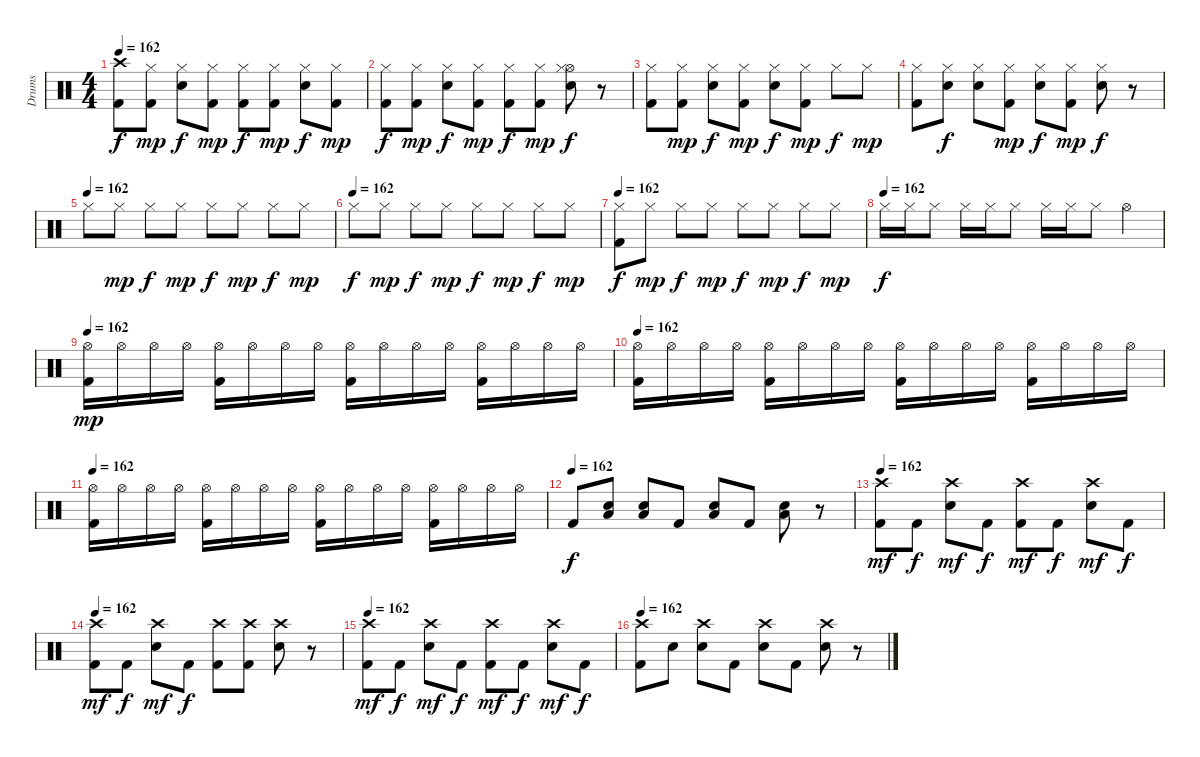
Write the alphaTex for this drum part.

\track ("Drums" "Drums") {instrument percussion}
\staff {score}
\articulation defaults
\ts (4 4)
\tempo 162
\clef neutral
\ks c
("Crash high (hit)" "Kick (hit) 2").8{dy f} ("Hi-Hat (closed)" "Kick (hit) 2").8{dy mp} ("Hi-Hat (closed)" "Electric Snare (hit)").8{dy f} ("Hi-Hat (closed)" "Kick (hit) 2").8{dy mp} ("Hi-Hat (closed)" "Kick (hit) 2").8{dy f} ("Hi-Hat (closed)" "Kick (hit) 2").8{dy mp} ("Hi-Hat (closed)" "Electric Snare (hit)").8{dy f} ("Hi-Hat (closed)" "Kick (hit) 2").8{dy mp} |
("Hi-Hat (closed)" "Kick (hit) 2").8{dy f} ("Hi-Hat (closed)" "Kick (hit) 2").8{dy mp} ("Hi-Hat (closed)" "Electric Snare (hit)").8{dy f} ("Hi-Hat (closed)" "Kick (hit) 2").8{dy mp} ("Hi-Hat (closed)" "Kick (hit) 2").8{dy f} ("Hi-Hat (closed)" "Kick (hit) 2").8{dy mp} ("Hi-Hat (open)" "Hi-Hat (closed)" "Electric Snare (hit)").8{dy f} r.8 |
("Hi-Hat (closed)" "Kick (hit) 2").8 ("Hi-Hat (closed)" "Kick (hit) 2").8{dy mp} ("Hi-Hat (closed)" "Electric Snare (hit)").8{dy f} ("Hi-Hat (closed)" "Kick (hit) 2").8{dy mp} ("Hi-Hat (closed)" "Electric Snare (hit)").8{dy f} ("Hi-Hat (closed)" "Kick (hit) 2").8{dy mp} "Hi-Hat (closed)".8{dy f} "Hi-Hat (closed)".8{dy mp} |
("Hi-Hat (closed)" "Kick (hit) 2").8 ("Hi-Hat (closed)" "Electric Snare (hit)").8{dy f} ("Hi-Hat (closed)" "Electric Snare (hit)").8 ("Hi-Hat (closed)" "Kick (hit) 2").8{dy mp} ("Hi-Hat (closed)" "Electric Snare (hit)").8{dy f} ("Hi-Hat (closed)" "Kick (hit) 2").8{dy mp} ("Hi-Hat (closed)" "Electric Snare (hit)").8{dy f} r.8 |
\tempo (162)
"Hi-Hat (closed)".8 "Hi-Hat (closed)".8{dy mp} "Hi-Hat (closed)".8{dy f} "Hi-Hat (closed)".8{dy mp} "Hi-Hat (closed)".8{dy f} "Hi-Hat (closed)".8{dy mp} "Hi-Hat (closed)".8{dy f} "Hi-Hat (closed)".8{dy mp} |
\tempo (162)
"Hi-Hat (closed)".8{dy f} "Hi-Hat (closed)".8{dy mp} "Hi-Hat (closed)".8{dy f} "Hi-Hat (closed)".8{dy mp} "Hi-Hat (closed)".8{dy f} "Hi-Hat (closed)".8{dy mp} "Hi-Hat (closed)".8{dy f} "Hi-Hat (closed)".8{dy mp} |
\tempo 162
("Hi-Hat (closed)" "Kick (hit) 2").8{dy f} "Hi-Hat (closed)".8{dy mp} "Hi-Hat (closed)".8{dy f} "Hi-Hat (closed)".8{dy mp} "Hi-Hat (closed)".8{dy f} "Hi-Hat (closed)".8{dy mp} "Hi-Hat (closed)".8{dy f} "Hi-Hat (closed)".8{dy mp} |
\tempo (162)
"Hi-Hat (closed)".16{dy f} "Hi-Hat (closed)".16 "Hi-Hat (closed)".8 "Hi-Hat (closed)".16 "Hi-Hat (closed)".16 "Hi-Hat (closed)".8 "Hi-Hat (closed)".16 "Hi-Hat (closed)".16 "Hi-Hat (closed)".8 "Hi-Hat (open)".4 |
\tempo 162
("Hi-Hat (open)" "Kick (hit) 2").16{dy mp} "Hi-Hat (open)".16 "Hi-Hat (open)".16 "Hi-Hat (open)".16 ("Hi-Hat (open)" "Kick (hit) 2").16 "Hi-Hat (open)".16 "Hi-Hat (open)".16 "Hi-Hat (open)".16 ("Hi-Hat (open)" "Kick (hit) 2").16 "Hi-Hat (open)".16 "Hi-Hat (open)".16 "Hi-Hat (open)".16 ("Hi-Hat (open)" "Kick (hit) 2").16 "Hi-Hat (open)".16 "Hi-Hat (open)".16 "Hi-Hat (open)".16 |
\tempo 162
("Hi-Hat (open)" "Kick (hit) 2").16 "Hi-Hat (open)".16 "Hi-Hat (open)".16 "Hi-Hat (open)".16 ("Hi-Hat (open)" "Kick (hit) 2").16 "Hi-Hat (open)".16 "Hi-Hat (open)".16 "Hi-Hat (open)".16 ("Hi-Hat (open)" "Kick (hit) 2").16 "Hi-Hat (open)".16 "Hi-Hat (open)".16 "Hi-Hat (open)".16 ("Hi-Hat (open)" "Kick (hit) 2").16 "Hi-Hat (open)".16 "Hi-Hat (open)".16 "Hi-Hat (open)".16 |
\tempo 162
("Hi-Hat (open)" "Kick (hit) 2").16 "Hi-Hat (open)".16 "Hi-Hat (open)".16 "Hi-Hat (open)".16 ("Hi-Hat (open)" "Kick (hit) 2").16 "Hi-Hat (open)".16 "Hi-Hat (open)".16 "Hi-Hat (open)".16 ("Hi-Hat (open)" "Kick (hit) 2").16 "Hi-Hat (open)".16 "Hi-Hat (open)".16 "Hi-Hat (open)".16 ("Hi-Hat (open)" "Kick (hit) 2").16 "Hi-Hat (open)".16 "Hi-Hat (open)".16 "Hi-Hat (open)".16 |
\tempo (162)
"Kick (hit) 2".8{dy f} ("Electric Snare (hit)" "Low Floor Tom (hit)").8 ("Electric Snare (hit)" "Low Floor Tom (hit)").8 "Kick (hit) 2".8 ("Electric Snare (hit)" "Low Floor Tom (hit)").8 "Kick (hit) 2".8 ("Electric Snare (hit)" "Low Floor Tom (hit)").8 r.8 |
\tempo 162
("Crash high (hit)" "Kick (hit) 2").8{dy mf} "Kick (hit) 2".8{dy f} ("Crash high (hit)" "Electric Snare (hit)").8{dy mf} "Kick (hit) 2".8{dy f} ("Crash high (hit)" "Kick (hit) 2").8{dy mf} "Kick (hit) 2".8{dy f} ("Crash high (hit)" "Electric Snare (hit)").8{dy mf} "Kick (hit) 2".8{dy f} |
\tempo 162
("Crash high (hit)" "Kick (hit) 2").8{dy mf} "Kick (hit) 2".8{dy f} ("Crash high (hit)" "Electric Snare (hit)").8{dy mf} "Kick (hit) 2".8{dy f} ("Crash high (hit)" "Kick (hit) 2").8 ("Crash high (hit)" "Kick (hit) 2").8 ("Crash high (hit)" "Electric Snare (hit)").8 r.8 |
\tempo 162
("Crash high (hit)" "Kick (hit) 2").8{dy mf} "Kick (hit) 2".8{dy f} ("Crash high (hit)" "Electric Snare (hit)").8{dy mf} "Kick (hit) 2".8{dy f} ("Crash high (hit)" "Kick (hit) 2").8{dy mf} "Kick (hit) 2".8{dy f} ("Crash high (hit)" "Electric Snare (hit)").8{dy mf} "Kick (hit) 2".8{dy f} |
\tempo 162
("Crash high (hit)" "Kick (hit) 2").8 "Electric Snare (hit)".8 ("Crash high (hit)" "Electric Snare (hit)").8 "Kick (hit) 2".8 ("Crash high (hit)" "Electric Snare (hit)").8 "Kick (hit) 2".8 ("Crash high (hit)" "Electric Snare (hit)").8 r.8
